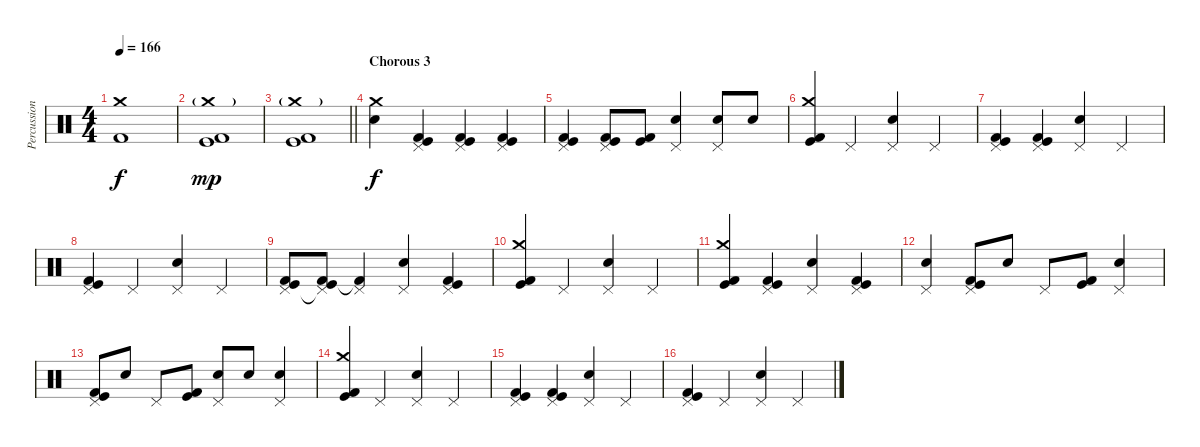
\track ("Percussion" "Percussion") {instrument percussion}
\staff {score}
\articulation defaults
\ts (4 4)
\tempo 166
\clef neutral
\ks c
("Kick (hit) 2"{t} "Crash medium (hit)"{t}).1{dy f} |
("Kick (hit) 2" "Crash medium (hit)"{g} "Kick (hit)").1{dy mp} |
\barLineRight lightlight
("Kick (hit) 2" "Crash medium (hit)"{g} "Kick (hit)").1 |
\section ("" "Chorous 3")
("Electric Snare (hit)" "Crash medium (hit)").4{dy f} ("Kick (hit) 2" "Pedal Hi-Hat (hit)" "Kick (hit)").4 ("Kick (hit) 2" "Pedal Hi-Hat (hit)" "Kick (hit)").4 ("Kick (hit) 2" "Pedal Hi-Hat (hit)" "Kick (hit)").4 |
("Kick (hit) 2" "Pedal Hi-Hat (hit)" "Kick (hit)").4 ("Kick (hit) 2" "Pedal Hi-Hat (hit)" "Kick (hit)").8 ("Kick (hit) 2" "Kick (hit)").8 ("Electric Snare (hit)" "Pedal Hi-Hat (hit)").4 ("Electric Snare (hit)" "Pedal Hi-Hat (hit)").8 "Electric Snare (hit)".8 |
("Kick (hit) 2" "Crash medium (hit)" "Kick (hit)").4 "Pedal Hi-Hat (hit)".4 ("Electric Snare (hit)" "Pedal Hi-Hat (hit)").4 "Pedal Hi-Hat (hit)".4 |
("Kick (hit) 2" "Pedal Hi-Hat (hit)" "Kick (hit)").4 ("Kick (hit) 2" "Pedal Hi-Hat (hit)" "Kick (hit)").4 ("Electric Snare (hit)" "Pedal Hi-Hat (hit)").4 "Pedal Hi-Hat (hit)".4 |
("Kick (hit) 2" "Pedal Hi-Hat (hit)" "Kick (hit)").4 "Pedal Hi-Hat (hit)".4 ("Electric Snare (hit)" "Pedal Hi-Hat (hit)").4 "Pedal Hi-Hat (hit)".4 |
("Kick (hit) 2" "Pedal Hi-Hat (hit)" "Kick (hit)").8 ("Kick (hit) 2" "Pedal Hi-Hat (hit)"{t} "Kick (hit)").8 ("Kick (hit) 2"{t} "Pedal Hi-Hat (hit)").4 ("Electric Snare (hit)" "Pedal Hi-Hat (hit)").4 ("Kick (hit) 2" "Pedal Hi-Hat (hit)" "Kick (hit)").4 |
("Kick (hit) 2" "Crash medium (hit)" "Kick (hit)").4 "Pedal Hi-Hat (hit)".4 ("Electric Snare (hit)" "Pedal Hi-Hat (hit)").4 "Pedal Hi-Hat (hit)".4 |
("Kick (hit) 2" "Crash medium (hit)" "Kick (hit)").4 ("Kick (hit) 2" "Pedal Hi-Hat (hit)" "Kick (hit)").4 ("Electric Snare (hit)" "Pedal Hi-Hat (hit)").4 ("Kick (hit) 2" "Pedal Hi-Hat (hit)" "Kick (hit)").4 |
("Electric Snare (hit)" "Pedal Hi-Hat (hit)").4 ("Kick (hit) 2" "Pedal Hi-Hat (hit)" "Kick (hit)").8 "Electric Snare (hit)".8 "Pedal Hi-Hat (hit)".8 ("Kick (hit) 2" "Kick (hit)").8 ("Electric Snare (hit)" "Pedal Hi-Hat (hit)").4 |
("Kick (hit) 2" "Pedal Hi-Hat (hit)" "Kick (hit)").8 "Electric Snare (hit)".8 "Pedal Hi-Hat (hit)".8 ("Kick (hit) 2" "Kick (hit)").8 ("Electric Snare (hit)" "Pedal Hi-Hat (hit)").8 "Electric Snare (hit)".8 ("Electric Snare (hit)" "Pedal Hi-Hat (hit)").4 |
("Kick (hit) 2" "Crash medium (hit)" "Kick (hit)").4 "Pedal Hi-Hat (hit)".4 ("Electric Snare (hit)" "Pedal Hi-Hat (hit)").4 "Pedal Hi-Hat (hit)".4 |
("Kick (hit) 2" "Pedal Hi-Hat (hit)" "Kick (hit)").4 ("Kick (hit) 2" "Pedal Hi-Hat (hit)" "Kick (hit)").4 ("Electric Snare (hit)" "Pedal Hi-Hat (hit)").4 "Pedal Hi-Hat (hit)".4 |
("Kick (hit) 2" "Pedal Hi-Hat (hit)" "Kick (hit)").4 "Pedal Hi-Hat (hit)".4 ("Electric Snare (hit)" "Pedal Hi-Hat (hit)").4 "Pedal Hi-Hat (hit)".4
